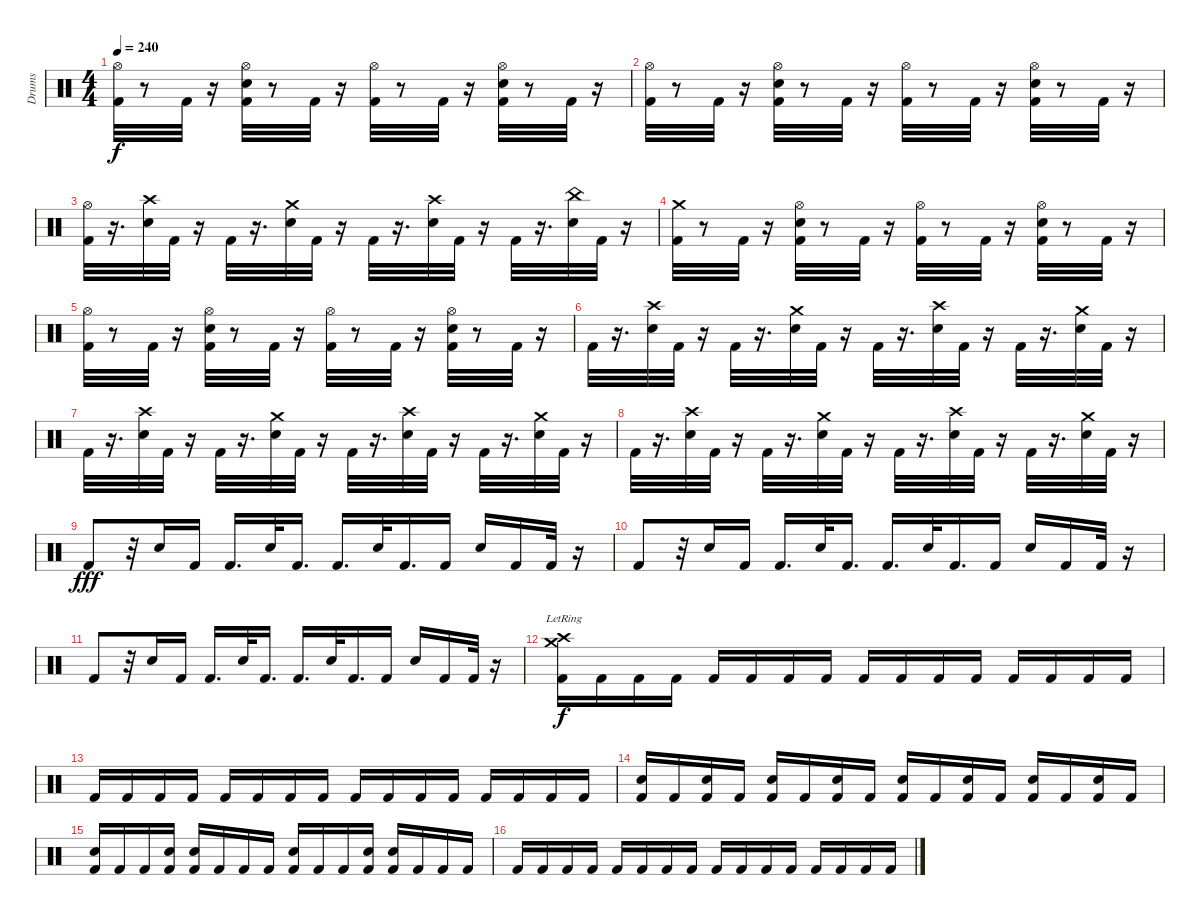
\track ("Drums" "Drums") {instrument percussion}
\staff {score}
\articulation defaults
\ts (4 4)
\tempo 240
\clef neutral
\ks c
("Hi-Hat (open)" "Kick (hit) 2").32{dy f} r.8 "Kick (hit) 2".32 r.16 ("Hi-Hat (open)" "Electric Snare (hit)" "Kick (hit) 2").32 r.8 "Kick (hit) 2".32 r.16 ("Kick (hit) 2" "Hi-Hat (open)").32 r.8 "Kick (hit) 2".32 r.16 ("Kick (hit) 2" "Hi-Hat (open)" "Electric Snare (hit)").32 r.8 "Kick (hit) 2".32 r.16 |
("Hi-Hat (open)" "Kick (hit) 2").32 r.8 "Kick (hit) 2".32 r.16 ("Kick (hit) 2" "Hi-Hat (open)" "Electric Snare (hit)").32 r.8 "Kick (hit) 2".32 r.16 ("Kick (hit) 2" "Hi-Hat (open)").32 r.8 "Kick (hit) 2".32 r.16 ("Electric Snare (hit)" "Hi-Hat (open)" "Kick (hit) 2").32 r.8 "Kick (hit) 2".32 r.16 |
("Kick (hit) 2" "Hi-Hat (open)").32 r.16{d} ("Crash high (hit)" "Electric Snare (hit)").32 "Kick (hit) 2".32 r.16 "Kick (hit) 2".32 r.16{d} ("Crash medium (hit)" "Electric Snare (hit)").32 "Kick (hit) 2".32 r.16 "Kick (hit) 2".32 r.16{d} ("Electric Snare (hit)" "Crash high (hit)").32 "Kick (hit) 2".32 r.16 "Kick (hit) 2".32 r.16{d} ("China (hit)" "Electric Snare (hit)").32 "Kick (hit) 2".32 r.16 |
("Crash medium (hit)" "Kick (hit) 2").32 r.8 "Kick (hit) 2".32 r.16 ("Electric Snare (hit)" "Hi-Hat (open)" "Kick (hit) 2").32 r.8 "Kick (hit) 2".32 r.16 ("Hi-Hat (open)" "Kick (hit) 2").32 r.8 "Kick (hit) 2".32 r.16 ("Electric Snare (hit)" "Hi-Hat (open)" "Kick (hit) 2").32 r.8 "Kick (hit) 2".32 r.16 |
("Hi-Hat (open)" "Kick (hit) 2").32 r.8 "Kick (hit) 2".32 r.16 ("Electric Snare (hit)" "Kick (hit) 2" "Hi-Hat (open)").32 r.8 "Kick (hit) 2".32 r.16 ("Kick (hit) 2" "Hi-Hat (open)").32 r.8 "Kick (hit) 2".32 r.16 ("Hi-Hat (open)" "Kick (hit) 2" "Electric Snare (hit)").32 r.8 "Kick (hit) 2".32 r.16 |
"Kick (hit) 2".32 r.16{d} ("Crash high (hit)" "Electric Snare (hit)").32 "Kick (hit) 2".32 r.16 "Kick (hit) 2".32 r.16{d} ("Electric Snare (hit)" "Crash medium (hit)").32 "Kick (hit) 2".32 r.16 "Kick (hit) 2".32 r.16{d} ("Electric Snare (hit)" "Crash high (hit)").32 "Kick (hit) 2".32 r.16 "Kick (hit) 2".32 r.16{d} ("Electric Snare (hit)" "Crash medium (hit)").32 "Kick (hit) 2".32 r.16 |
"Kick (hit) 2".32 r.16{d} ("Electric Snare (hit)" "Crash high (hit)").32 "Kick (hit) 2".32 r.16 "Kick (hit) 2".32 r.16{d} ("Electric Snare (hit)" "Crash medium (hit)").32 "Kick (hit) 2".32 r.16 "Kick (hit) 2".32 r.16{d} ("Electric Snare (hit)" "Crash high (hit)").32 "Kick (hit) 2".32 r.16 "Kick (hit) 2".32 r.16{d} ("Crash medium (hit)" "Electric Snare (hit)").32 "Kick (hit) 2".32 r.16 |
"Kick (hit) 2".32 r.16{d} ("Crash high (hit)" "Electric Snare (hit)").32 "Kick (hit) 2".32 r.16 "Kick (hit) 2".32 r.16{d} ("Electric Snare (hit)" "Crash medium (hit)").32 "Kick (hit) 2".32 r.16 "Kick (hit) 2".32 r.16{d} ("Electric Snare (hit)" "Crash high (hit)").32 "Kick (hit) 2".32 r.16 "Kick (hit) 2".32 r.16{d} ("Electric Snare (hit)" "Crash medium (hit)").32 "Kick (hit) 2".32 r.16 |
"Kick (hit) 2".8{dy fff} r.32 "Electric Snare (hit)".16 "Kick (hit) 2".16 "Kick (hit) 2".16{d} "Electric Snare (hit)".32 "Kick (hit) 2".16{d} "Kick (hit) 2".16{d} "Electric Snare (hit)".32 "Kick (hit) 2".16{d} "Kick (hit) 2".16 "Electric Snare (hit)".16 "Kick (hit) 2".16 "Kick (hit) 2".32 r.16 |
"Kick (hit) 2".8 r.32 "Electric Snare (hit)".16 "Kick (hit) 2".16 "Kick (hit) 2".16{d} "Electric Snare (hit)".32 "Kick (hit) 2".16{d} "Kick (hit) 2".16{d} "Electric Snare (hit)".32 "Kick (hit) 2".16{d} "Kick (hit) 2".16 "Electric Snare (hit)".16 "Kick (hit) 2".16 "Kick (hit) 2".32 r.16 |
"Kick (hit) 2".8 r.32 "Electric Snare (hit)".16 "Kick (hit) 2".16 "Kick (hit) 2".16{d} "Electric Snare (hit)".32 "Kick (hit) 2".16{d} "Kick (hit) 2".16{d} "Electric Snare (hit)".32 "Kick (hit) 2".16{d} "Kick (hit) 2".16 "Electric Snare (hit)".16 "Kick (hit) 2".16 "Kick (hit) 2".32 r.16 |
("Crash medium (hit)"{lr} "Crash high (hit)"{lr} "Kick (hit) 2").16{dy f} "Kick (hit) 2".16 "Kick (hit) 2".16 "Kick (hit) 2".16 "Kick (hit) 2".16 "Kick (hit) 2".16 "Kick (hit) 2".16 "Kick (hit) 2".16 "Kick (hit) 2".16 "Kick (hit) 2".16 "Kick (hit) 2".16 "Kick (hit) 2".16 "Kick (hit) 2".16 "Kick (hit) 2".16 "Kick (hit) 2".16 "Kick (hit) 2".16 |
"Kick (hit) 2".16 "Kick (hit) 2".16 "Kick (hit) 2".16 "Kick (hit) 2".16 "Kick (hit) 2".16 "Kick (hit) 2".16 "Kick (hit) 2".16 "Kick (hit) 2".16 "Kick (hit) 2".16 "Kick (hit) 2".16 "Kick (hit) 2".16 "Kick (hit) 2".16 "Kick (hit) 2".16 "Kick (hit) 2".16 "Kick (hit) 2".16 "Kick (hit) 2".16 |
("Electric Snare (hit)" "Kick (hit) 2").16 "Kick (hit) 2".16 ("Electric Snare (hit)" "Kick (hit) 2").16 "Kick (hit) 2".16 ("Electric Snare (hit)" "Kick (hit) 2").16 "Kick (hit) 2".16 ("Electric Snare (hit)" "Kick (hit) 2").16 "Kick (hit) 2".16 ("Electric Snare (hit)" "Kick (hit) 2").16 "Kick (hit) 2".16 ("Electric Snare (hit)" "Kick (hit) 2").16 "Kick (hit) 2".16 ("Electric Snare (hit)" "Kick (hit) 2").16 "Kick (hit) 2".16 ("Electric Snare (hit)" "Kick (hit) 2").16 "Kick (hit) 2".16 |
("Electric Snare (hit)" "Kick (hit) 2").16 "Kick (hit) 2".16 "Kick (hit) 2".16 ("Electric Snare (hit)" "Kick (hit) 2").16 ("Electric Snare (hit)" "Kick (hit) 2").16 "Kick (hit) 2".16 "Kick (hit) 2".16 "Kick (hit) 2".16 ("Electric Snare (hit)" "Kick (hit) 2").16 "Kick (hit) 2".16 "Kick (hit) 2".16 ("Electric Snare (hit)" "Kick (hit) 2").16 ("Electric Snare (hit)" "Kick (hit) 2").16 "Kick (hit) 2".16 "Kick (hit) 2".16 "Kick (hit) 2".16 |
"Kick (hit) 2".16 "Kick (hit) 2".16 "Kick (hit) 2".16 "Kick (hit) 2".16 "Kick (hit) 2".16 "Kick (hit) 2".16 "Kick (hit) 2".16 "Kick (hit) 2".16 "Kick (hit) 2".16 "Kick (hit) 2".16 "Kick (hit) 2".16 "Kick (hit) 2".16 "Kick (hit) 2".16 "Kick (hit) 2".16 "Kick (hit) 2".16 "Kick (hit) 2".16
